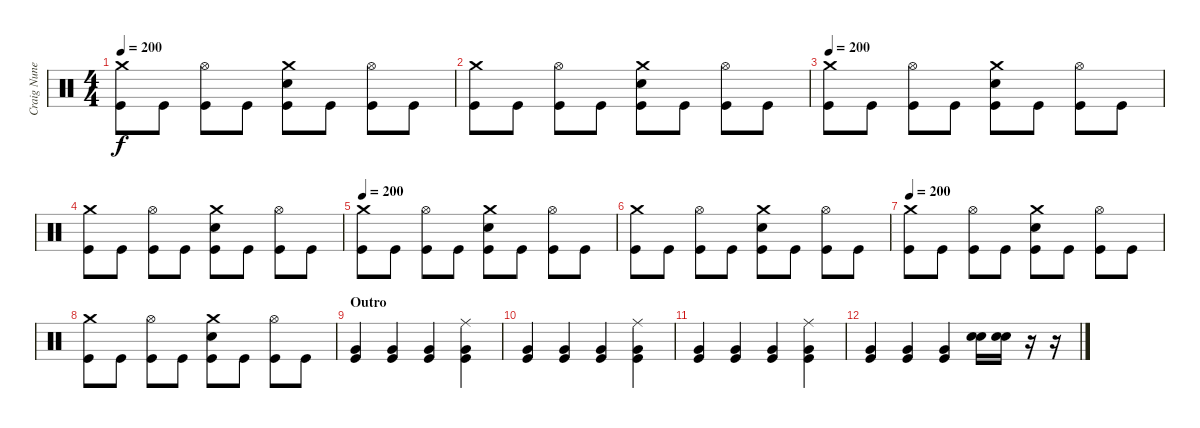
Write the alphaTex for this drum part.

\track ("Craig Nunenmacher" "Craig Nune") {instrument percussion}
\staff {score}
\articulation defaults
\ts (4 4)
\tempo 200
\clef neutral
\ks c
("Crash medium (hit)" "Kick (hit)").8{dy f} "Kick (hit)".8 ("Hi-Hat (open)" "Kick (hit)").8 "Kick (hit)".8 ("Crash medium (hit)" "Snare (hit) 2" "Kick (hit)").8 "Kick (hit)".8 ("Hi-Hat (open)" "Kick (hit)").8 "Kick (hit)".8 |
("Crash medium (hit)" "Kick (hit)").8 "Kick (hit)".8 ("Hi-Hat (open)" "Kick (hit)").8 "Kick (hit)".8 ("Crash medium (hit)" "Snare (hit) 2" "Kick (hit)").8 "Kick (hit)".8 ("Hi-Hat (open)" "Kick (hit)").8 "Kick (hit)".8 |
\tempo 200
("Crash medium (hit)" "Kick (hit)").8 "Kick (hit)".8 ("Hi-Hat (open)" "Kick (hit)").8 "Kick (hit)".8 ("Crash medium (hit)" "Snare (hit) 2" "Kick (hit)").8 "Kick (hit)".8 ("Hi-Hat (open)" "Kick (hit)").8 "Kick (hit)".8 |
("Crash medium (hit)" "Kick (hit)").8 "Kick (hit)".8 ("Hi-Hat (open)" "Kick (hit)").8 "Kick (hit)".8 ("Crash medium (hit)" "Snare (hit) 2" "Kick (hit)").8 "Kick (hit)".8 ("Hi-Hat (open)" "Kick (hit)").8 "Kick (hit)".8 |
\tempo 200
("Crash medium (hit)" "Kick (hit)").8 "Kick (hit)".8 ("Hi-Hat (open)" "Kick (hit)").8 "Kick (hit)".8 ("Crash medium (hit)" "Snare (hit) 2" "Kick (hit)").8 "Kick (hit)".8 ("Hi-Hat (open)" "Kick (hit)").8 "Kick (hit)".8 |
("Crash medium (hit)" "Kick (hit)").8 "Kick (hit)".8 ("Hi-Hat (open)" "Kick (hit)").8 "Kick (hit)".8 ("Crash medium (hit)" "Snare (hit) 2" "Kick (hit)").8 "Kick (hit)".8 ("Hi-Hat (open)" "Kick (hit)").8 "Kick (hit)".8 |
\tempo 200
("Crash medium (hit)" "Kick (hit)").8 "Kick (hit)".8 ("Hi-Hat (open)" "Kick (hit)").8 "Kick (hit)".8 ("Crash medium (hit)" "Snare (hit) 2" "Kick (hit)").8 "Kick (hit)".8 ("Hi-Hat (open)" "Kick (hit)").8 "Kick (hit)".8 |
("Crash medium (hit)" "Kick (hit)").8 "Kick (hit)".8 ("Hi-Hat (open)" "Kick (hit)").8 "Kick (hit)".8 ("Crash medium (hit)" "Snare (hit) 2" "Kick (hit)").8 "Kick (hit)".8 ("Hi-Hat (open)" "Kick (hit)").8 "Kick (hit)".8 |
\section ("" "Outro")
("Very Low Tom (hit)" "Kick (hit)").4 ("Very Low Tom (hit)" "Kick (hit)").4 ("Very Low Tom (hit)" "Kick (hit)").4 ("Ride (middle)" "Very Low Tom (hit)" "Kick (hit)").4 |
("Very Low Tom (hit)" "Kick (hit)").4 ("Very Low Tom (hit)" "Kick (hit)").4 ("Very Low Tom (hit)" "Kick (hit)").4 ("Ride (middle)" "Very Low Tom (hit)" "Kick (hit)").4 |
("Very Low Tom (hit)" "Kick (hit)").4 ("Very Low Tom (hit)" "Kick (hit)").4 ("Very Low Tom (hit)" "Kick (hit)").4 ("Ride (middle)" "Very Low Tom (hit)" "Kick (hit)").4 |
("Very Low Tom (hit)" "Kick (hit)").4 ("Very Low Tom (hit)" "Kick (hit)").4 ("Very Low Tom (hit)" "Kick (hit)").4 ("Snare (hit) 2" "Snare (hit) 2").16 ("Snare (hit) 2" "Snare (hit) 2").16 r.16 r.16
